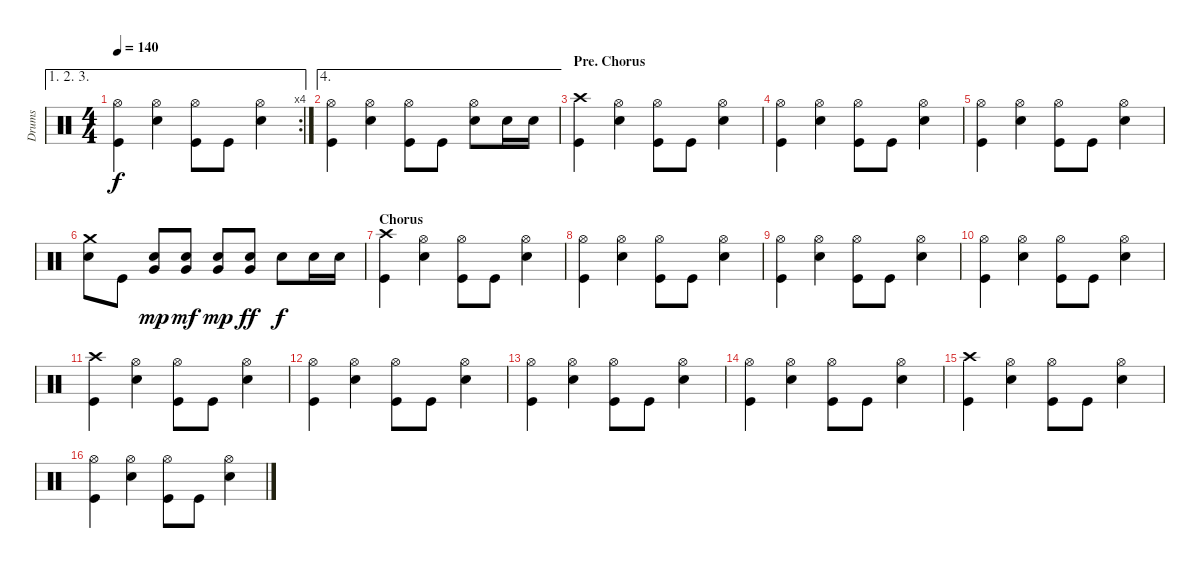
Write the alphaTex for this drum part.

\track ("Drums" "Drums") {instrument percussion}
\staff {score}
\articulation defaults
\ae (1 2 3)
\rc 4
\ts (4 4)
\tempo 140
\clef neutral
\ks c
("Hi-Hat (open)" "Kick (hit)").4{dy f} ("Hi-Hat (open)" "Electric Snare (hit)").4 ("Hi-Hat (open)" "Kick (hit)").8 "Kick (hit)".8 ("Hi-Hat (open)" "Electric Snare (hit)").4 |
\ae 4
("Hi-Hat (open)" "Kick (hit)").4 ("Hi-Hat (open)" "Electric Snare (hit)").4 ("Hi-Hat (open)" "Kick (hit)").8 "Kick (hit)".8 ("Hi-Hat (open)" "Electric Snare (hit)").8 "Electric Snare (hit)".16 "Electric Snare (hit)".16 |
\section ("" "Pre. Chorus")
("Crash high (hit)" "Kick (hit)").4 ("Hi-Hat (open)" "Electric Snare (hit)").4 ("Hi-Hat (open)" "Kick (hit)").8 "Kick (hit)".8 ("Hi-Hat (open)" "Electric Snare (hit)").4 |
("Hi-Hat (open)" "Kick (hit)").4 ("Hi-Hat (open)" "Electric Snare (hit)").4 ("Hi-Hat (open)" "Kick (hit)").8 "Kick (hit)".8 ("Hi-Hat (open)" "Electric Snare (hit)").4 |
("Hi-Hat (open)" "Kick (hit)").4 ("Hi-Hat (open)" "Electric Snare (hit)").4 ("Hi-Hat (open)" "Kick (hit)").8 "Kick (hit)".8 ("Hi-Hat (open)" "Electric Snare (hit)").4 |
("Crash medium (hit)" "Electric Snare (hit)").8 "Kick (hit)".8 ("Snare (hit) 2" "Very Low Tom (hit)").8{dy mp} ("Snare (hit) 2" "Very Low Tom (hit)").8{dy mf} ("Snare (hit) 2" "Very Low Tom (hit)").8{dy mp} ("Snare (hit) 2" "Very Low Tom (hit)").8{dy ff} "Electric Snare (hit)".8{dy f} "Electric Snare (hit)".16 "Electric Snare (hit)".16 |
\section ("" "Chorus")
("Crash high (hit)" "Kick (hit)").4 ("Hi-Hat (open)" "Electric Snare (hit)").4 ("Hi-Hat (open)" "Kick (hit)").8 "Kick (hit)".8 ("Hi-Hat (open)" "Electric Snare (hit)").4 |
("Hi-Hat (open)" "Kick (hit)").4 ("Hi-Hat (open)" "Electric Snare (hit)").4 ("Hi-Hat (open)" "Kick (hit)").8 "Kick (hit)".8 ("Hi-Hat (open)" "Electric Snare (hit)").4 |
("Hi-Hat (open)" "Kick (hit)").4 ("Hi-Hat (open)" "Electric Snare (hit)").4 ("Hi-Hat (open)" "Kick (hit)").8 "Kick (hit)".8 ("Hi-Hat (open)" "Electric Snare (hit)").4 |
("Hi-Hat (open)" "Kick (hit)").4 ("Hi-Hat (open)" "Electric Snare (hit)").4 ("Hi-Hat (open)" "Kick (hit)").8 "Kick (hit)".8 ("Hi-Hat (open)" "Electric Snare (hit)").4 |
("Crash high (hit)" "Kick (hit)").4 ("Hi-Hat (open)" "Electric Snare (hit)").4 ("Hi-Hat (open)" "Kick (hit)").8 "Kick (hit)".8 ("Hi-Hat (open)" "Electric Snare (hit)").4 |
("Hi-Hat (open)" "Kick (hit)").4 ("Hi-Hat (open)" "Electric Snare (hit)").4 ("Hi-Hat (open)" "Kick (hit)").8 "Kick (hit)".8 ("Hi-Hat (open)" "Electric Snare (hit)").4 |
("Hi-Hat (open)" "Kick (hit)").4 ("Hi-Hat (open)" "Electric Snare (hit)").4 ("Hi-Hat (open)" "Kick (hit)").8 "Kick (hit)".8 ("Hi-Hat (open)" "Electric Snare (hit)").4 |
("Hi-Hat (open)" "Kick (hit)").4 ("Hi-Hat (open)" "Electric Snare (hit)").4 ("Hi-Hat (open)" "Kick (hit)").8 "Kick (hit)".8 ("Hi-Hat (open)" "Electric Snare (hit)").4 |
("Crash high (hit)" "Kick (hit)").4 ("Hi-Hat (open)" "Electric Snare (hit)").4 ("Hi-Hat (open)" "Kick (hit)").8 "Kick (hit)".8 ("Hi-Hat (open)" "Electric Snare (hit)").4 |
("Hi-Hat (open)" "Kick (hit)").4 ("Hi-Hat (open)" "Electric Snare (hit)").4 ("Hi-Hat (open)" "Kick (hit)").8 "Kick (hit)".8 ("Hi-Hat (open)" "Electric Snare (hit)").4
